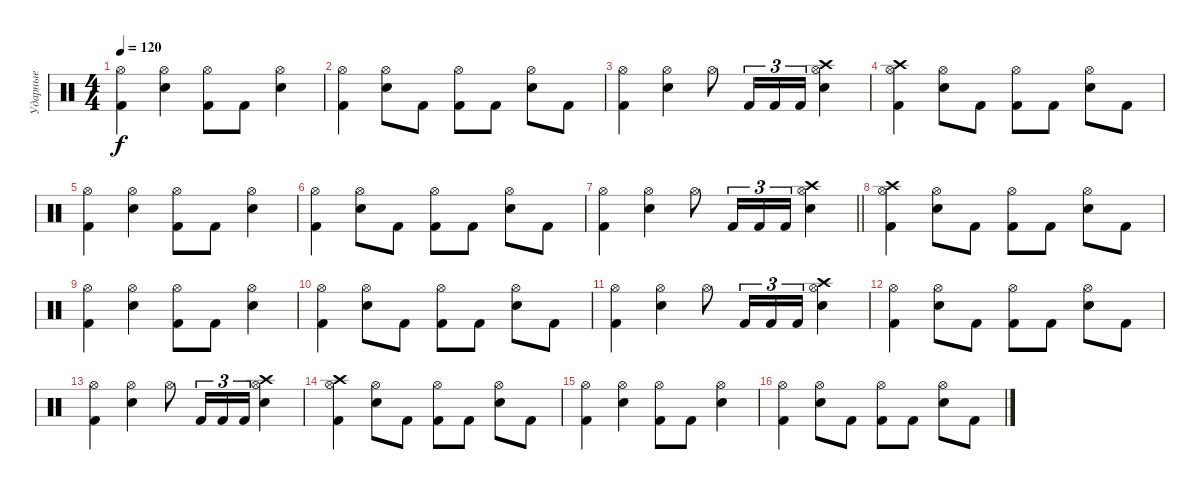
\track ("Ударные" "Ударные") {instrument percussion}
\staff {score}
\articulation defaults
\ts (4 4)
\tempo 120
\clef neutral
\ks c
("Kick (hit) 2" "Hi-Hat (open)").4{dy f} ("Snare (hit) 2" "Hi-Hat (open)").4 ("Kick (hit) 2" "Hi-Hat (open)").8 "Kick (hit) 2".8 ("Snare (hit) 2" "Hi-Hat (open)").4 |
("Kick (hit) 2" "Hi-Hat (open)").4 ("Snare (hit) 2" "Hi-Hat (open)").8 "Kick (hit) 2".8 ("Kick (hit) 2" "Hi-Hat (open)").8 "Kick (hit) 2".8 ("Snare (hit) 2" "Hi-Hat (open)").8 "Kick (hit) 2".8 |
("Kick (hit) 2" "Hi-Hat (open)").4 ("Snare (hit) 2" "Hi-Hat (open)").4 "Hi-Hat (open)".8 "Kick (hit) 2".16{tu (3 2)} "Kick (hit) 2".16{tu (3 2)} "Kick (hit) 2".16{tu (3 2)} ("Snare (hit) 2" "Hi-Hat (open)" "Crash high (hit)").4 |
("Kick (hit) 2" "Hi-Hat (open)" "Crash high (hit)").4 ("Snare (hit) 2" "Hi-Hat (open)").8 "Kick (hit) 2".8 ("Kick (hit) 2" "Hi-Hat (open)").8 "Kick (hit) 2".8 ("Snare (hit) 2" "Hi-Hat (open)").8 "Kick (hit) 2".8 |
("Kick (hit) 2" "Hi-Hat (open)").4 ("Snare (hit) 2" "Hi-Hat (open)").4 ("Kick (hit) 2" "Hi-Hat (open)").8 "Kick (hit) 2".8 ("Snare (hit) 2" "Hi-Hat (open)").4 |
("Kick (hit) 2" "Hi-Hat (open)").4 ("Snare (hit) 2" "Hi-Hat (open)").8 "Kick (hit) 2".8 ("Kick (hit) 2" "Hi-Hat (open)").8 "Kick (hit) 2".8 ("Snare (hit) 2" "Hi-Hat (open)").8 "Kick (hit) 2".8 |
\barLineRight lightlight
("Kick (hit) 2" "Hi-Hat (open)").4 ("Snare (hit) 2" "Hi-Hat (open)").4 "Hi-Hat (open)".8 "Kick (hit) 2".16{tu (3 2)} "Kick (hit) 2".16{tu (3 2)} "Kick (hit) 2".16{tu (3 2)} ("Snare (hit) 2" "Hi-Hat (open)" "Crash high (hit)").4 |
("Kick (hit) 2" "Hi-Hat (open)" "Crash high (hit)").4 ("Snare (hit) 2" "Hi-Hat (open)").8 "Kick (hit) 2".8 ("Kick (hit) 2" "Hi-Hat (open)").8 "Kick (hit) 2".8 ("Snare (hit) 2" "Hi-Hat (open)").8 "Kick (hit) 2".8 |
("Kick (hit) 2" "Hi-Hat (open)").4 ("Snare (hit) 2" "Hi-Hat (open)").4 ("Kick (hit) 2" "Hi-Hat (open)").8 "Kick (hit) 2".8 ("Snare (hit) 2" "Hi-Hat (open)").4 |
("Kick (hit) 2" "Hi-Hat (open)").4 ("Snare (hit) 2" "Hi-Hat (open)").8 "Kick (hit) 2".8 ("Kick (hit) 2" "Hi-Hat (open)").8 "Kick (hit) 2".8 ("Snare (hit) 2" "Hi-Hat (open)").8 "Kick (hit) 2".8 |
("Kick (hit) 2" "Hi-Hat (open)").4 ("Snare (hit) 2" "Hi-Hat (open)").4 "Hi-Hat (open)".8 "Kick (hit) 2".16{tu (3 2)} "Kick (hit) 2".16{tu (3 2)} "Kick (hit) 2".16{tu (3 2)} ("Snare (hit) 2" "Hi-Hat (open)" "Crash high (hit)").4 |
("Kick (hit) 2" "Hi-Hat (open)").4 ("Snare (hit) 2" "Hi-Hat (open)").8 "Kick (hit) 2".8 ("Kick (hit) 2" "Hi-Hat (open)").8 "Kick (hit) 2".8 ("Snare (hit) 2" "Hi-Hat (open)").8 "Kick (hit) 2".8 |
("Kick (hit) 2" "Hi-Hat (open)").4 ("Snare (hit) 2" "Hi-Hat (open)").4 "Hi-Hat (open)".8 "Kick (hit) 2".16{tu (3 2)} "Kick (hit) 2".16{tu (3 2)} "Kick (hit) 2".16{tu (3 2)} ("Snare (hit) 2" "Hi-Hat (open)" "Crash high (hit)").4 |
("Kick (hit) 2" "Hi-Hat (open)" "Crash high (hit)").4 ("Snare (hit) 2" "Hi-Hat (open)").8 "Kick (hit) 2".8 ("Kick (hit) 2" "Hi-Hat (open)").8 "Kick (hit) 2".8 ("Snare (hit) 2" "Hi-Hat (open)").8 "Kick (hit) 2".8 |
("Kick (hit) 2" "Hi-Hat (open)").4 ("Snare (hit) 2" "Hi-Hat (open)").4 ("Kick (hit) 2" "Hi-Hat (open)").8 "Kick (hit) 2".8 ("Snare (hit) 2" "Hi-Hat (open)").4 |
("Kick (hit) 2" "Hi-Hat (open)").4 ("Snare (hit) 2" "Hi-Hat (open)").8 "Kick (hit) 2".8 ("Kick (hit) 2" "Hi-Hat (open)").8 "Kick (hit) 2".8 ("Snare (hit) 2" "Hi-Hat (open)").8 "Kick (hit) 2".8
